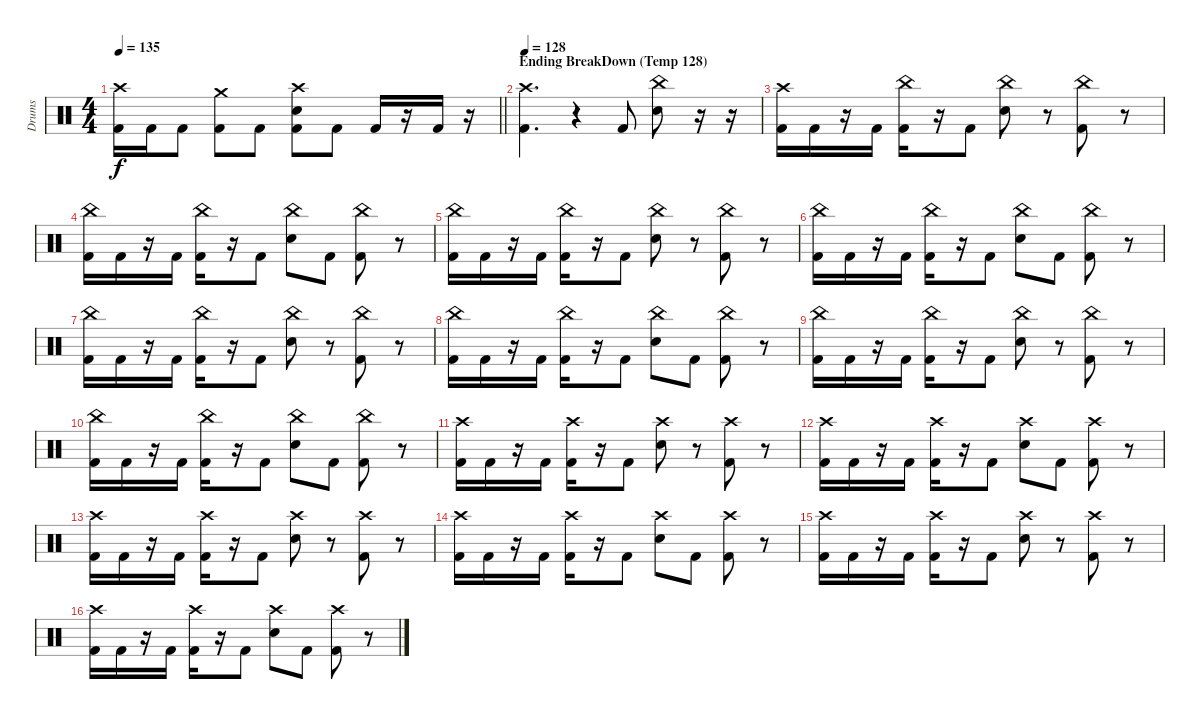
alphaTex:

\track ("Drums" "Drums") {instrument percussion}
\staff {score}
\articulation defaults
\ts (4 4)
\tempo 135
\clef neutral
\barLineRight lightlight
\ks c
("Crash high (hit)" "Kick (hit) 2").16{dy f} "Kick (hit) 2".16 "Kick (hit) 2".8 ("Crash medium (hit)" "Kick (hit) 2").8 "Kick (hit) 2".8 ("Crash high (hit)" "Electric Snare (hit)" "Kick (hit) 2").8 "Kick (hit) 2".8 "Kick (hit) 2".16 r.16 "Kick (hit) 2".16 r.16 |
\section ("" "Ending BreakDown (Temp 128)")
\tempo 128
("Crash high (hit)" "Kick (hit) 2").4{d} r.4 "Kick (hit) 2".8 ("China (hit)" "Electric Snare (hit)").8 r.16 r.16 |
("Kick (hit) 2" "Crash high (hit)").16 "Kick (hit) 2".16 r.16 "Kick (hit) 2".16 ("Kick (hit) 2" "China (hit)").16 r.16 "Kick (hit) 2".8 ("Electric Snare (hit)" "China (hit)").8 r.8 ("Kick (hit) 2" "China (hit)").8 r.8 |
("Kick (hit) 2" "China (hit)").16 "Kick (hit) 2".16 r.16 "Kick (hit) 2".16 ("Kick (hit) 2" "China (hit)").16 r.16 "Kick (hit) 2".8 ("China (hit)" "Electric Snare (hit)").8 "Kick (hit) 2".8 ("Kick (hit) 2" "China (hit)").8 r.8 |
("Kick (hit) 2" "China (hit)").16 "Kick (hit) 2".16 r.16 "Kick (hit) 2".16 ("Kick (hit) 2" "China (hit)").16 r.16 "Kick (hit) 2".8 ("Electric Snare (hit)" "China (hit)").8 r.8 ("Kick (hit) 2" "China (hit)").8 r.8 |
("Kick (hit) 2" "China (hit)").16 "Kick (hit) 2".16 r.16 "Kick (hit) 2".16 ("Kick (hit) 2" "China (hit)").16 r.16 "Kick (hit) 2".8 ("China (hit)" "Electric Snare (hit)").8 "Kick (hit) 2".8 ("Kick (hit) 2" "China (hit)").8 r.8 |
("Kick (hit) 2" "China (hit)").16 "Kick (hit) 2".16 r.16 "Kick (hit) 2".16 ("Kick (hit) 2" "China (hit)").16 r.16 "Kick (hit) 2".8 ("Electric Snare (hit)" "China (hit)").8 r.8 ("Kick (hit) 2" "China (hit)").8 r.8 |
("Kick (hit) 2" "China (hit)").16 "Kick (hit) 2".16 r.16 "Kick (hit) 2".16 ("Kick (hit) 2" "China (hit)").16 r.16 "Kick (hit) 2".8 ("China (hit)" "Electric Snare (hit)").8 "Kick (hit) 2".8 ("Kick (hit) 2" "China (hit)").8 r.8 |
("Kick (hit) 2" "China (hit)").16 "Kick (hit) 2".16 r.16 "Kick (hit) 2".16 ("Kick (hit) 2" "China (hit)").16 r.16 "Kick (hit) 2".8 ("Electric Snare (hit)" "China (hit)").8 r.8 ("Kick (hit) 2" "China (hit)").8 r.8 |
("Kick (hit) 2" "China (hit)").16 "Kick (hit) 2".16 r.16 "Kick (hit) 2".16 ("Kick (hit) 2" "China (hit)").16 r.16 "Kick (hit) 2".8 ("China (hit)" "Electric Snare (hit)").8 "Kick (hit) 2".8 ("Kick (hit) 2" "China (hit)").8 r.8 |
("Kick (hit) 2" "Crash high (hit)").16 "Kick (hit) 2".16 r.16 "Kick (hit) 2".16 ("Kick (hit) 2" "Crash high (hit)").16 r.16 "Kick (hit) 2".8 ("Electric Snare (hit)" "Crash high (hit)").8 r.8 ("Kick (hit) 2" "Crash high (hit)").8 r.8 |
("Kick (hit) 2" "Crash high (hit)").16 "Kick (hit) 2".16 r.16 "Kick (hit) 2".16 ("Kick (hit) 2" "Crash high (hit)").16 r.16 "Kick (hit) 2".8 ("Crash high (hit)" "Electric Snare (hit)").8 "Kick (hit) 2".8 ("Kick (hit) 2" "Crash high (hit)").8 r.8 |
("Kick (hit) 2" "Crash high (hit)").16 "Kick (hit) 2".16 r.16 "Kick (hit) 2".16 ("Kick (hit) 2" "Crash high (hit)").16 r.16 "Kick (hit) 2".8 ("Electric Snare (hit)" "Crash high (hit)").8 r.8 ("Kick (hit) 2" "Crash high (hit)").8 r.8 |
("Kick (hit) 2" "Crash high (hit)").16 "Kick (hit) 2".16 r.16 "Kick (hit) 2".16 ("Kick (hit) 2" "Crash high (hit)").16 r.16 "Kick (hit) 2".8 ("Crash high (hit)" "Electric Snare (hit)").8 "Kick (hit) 2".8 ("Kick (hit) 2" "Crash high (hit)").8 r.8 |
("Kick (hit) 2" "Crash high (hit)").16 "Kick (hit) 2".16 r.16 "Kick (hit) 2".16 ("Kick (hit) 2" "Crash high (hit)").16 r.16 "Kick (hit) 2".8 ("Electric Snare (hit)" "Crash high (hit)").8 r.8 ("Kick (hit) 2" "Crash high (hit)").8 r.8 |
("Kick (hit) 2" "Crash high (hit)").16 "Kick (hit) 2".16 r.16 "Kick (hit) 2".16 ("Kick (hit) 2" "Crash high (hit)").16 r.16 "Kick (hit) 2".8 ("Crash high (hit)" "Electric Snare (hit)").8 "Kick (hit) 2".8 ("Kick (hit) 2" "Crash high (hit)").8 r.8
